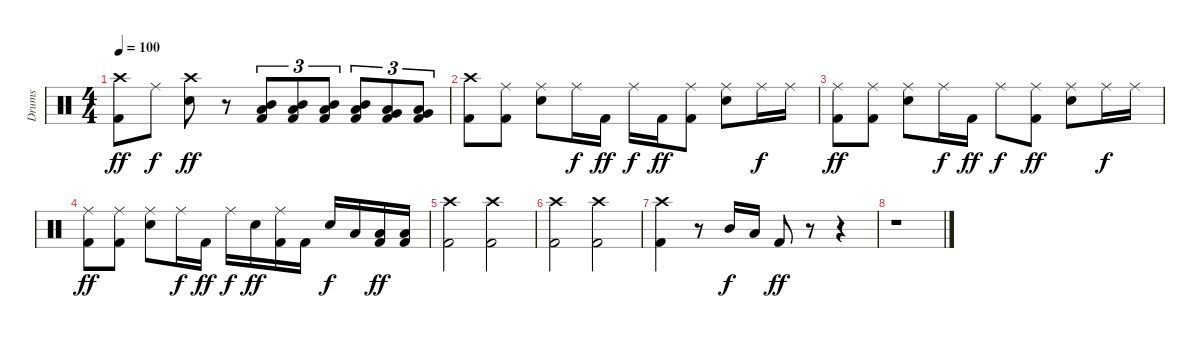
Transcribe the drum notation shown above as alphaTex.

\track ("Drums" "Drums") {instrument percussion}
\staff {score}
\articulation defaults
\ts (4 4)
\tempo 100
\clef neutral
\ks c
("Crash high (hit)" "Kick (hit) 2").8{dy ff} "Ride (middle)".8{dy f} ("Crash high (hit)" "Snare (hit) 2").8{dy ff} r.8 ("Mid Tom (hit)" "Low Floor Tom (hit)" "Kick (hit) 2").8{tu (3 2)} ("Mid Tom (hit)" "Low Floor Tom (hit)" "Kick (hit) 2").8{tu (3 2)} ("Mid Tom (hit)" "Low Floor Tom (hit)" "Kick (hit) 2").8{tu (3 2)} ("Mid Tom (hit)" "Low Floor Tom (hit)" "Kick (hit) 2").8{tu (3 2)} ("Very Low Tom (hit)" "Low Floor Tom (hit)" "Kick (hit) 2").8{tu (3 2)} ("Very Low Tom (hit)" "Low Floor Tom (hit)" "Kick (hit) 2").8{tu (3 2)} |
("Crash high (hit)" "Kick (hit) 2").8 ("Ride (middle)" "Kick (hit) 2").8 ("Ride (middle)" "Snare (hit) 2").8 "Ride (middle)".16{dy f} "Kick (hit) 2".16{dy ff} "Ride (middle)".16{dy f} "Kick (hit) 2".16{dy ff} ("Ride (middle)" "Kick (hit) 2").8 ("Ride (middle)" "Snare (hit) 2").8 "Ride (middle)".16{dy f} "Ride (middle)".16 |
("Ride (middle)" "Kick (hit) 2").8{dy ff} ("Ride (middle)" "Kick (hit) 2").8 ("Ride (middle)" "Snare (hit) 2").8 "Ride (middle)".16{dy f} "Kick (hit) 2".16{dy ff} "Ride (middle)".8{dy f} ("Ride (middle)" "Kick (hit) 2").8{dy ff} ("Ride (middle)" "Snare (hit) 2").8 "Ride (middle)".16{dy f} "Ride (middle)".16 |
("Ride (middle)" "Kick (hit) 2").8{dy ff} ("Ride (middle)" "Kick (hit) 2").8 ("Ride (middle)" "Snare (hit) 2").8 "Ride (middle)".16{dy f} "Kick (hit) 2".16{dy ff} "Ride (middle)".16{dy f} "Snare (hit) 2".16{dy ff} ("Ride (middle)" "Kick (hit) 2").16 "Kick (hit) 2".16 "Snare (hit) 2".16{dy f} "Low Floor Tom (hit)".16 ("Low Floor Tom (hit)" "Kick (hit) 2").16{dy ff} ("Low Floor Tom (hit)" "Kick (hit) 2").16 |
("Crash high (hit)" "Kick (hit) 2").2 ("Crash high (hit)" "Kick (hit) 2").2 |
("Crash high (hit)" "Kick (hit) 2").2 ("Crash high (hit)" "Kick (hit) 2").2 |
("Crash high (hit)" "Kick (hit) 2").4 r.8 "Mid Tom (hit)".16{dy f} "Low Floor Tom (hit)".16 "Kick (hit) 2".8{dy ff} r.8 r.4 |
r.1
